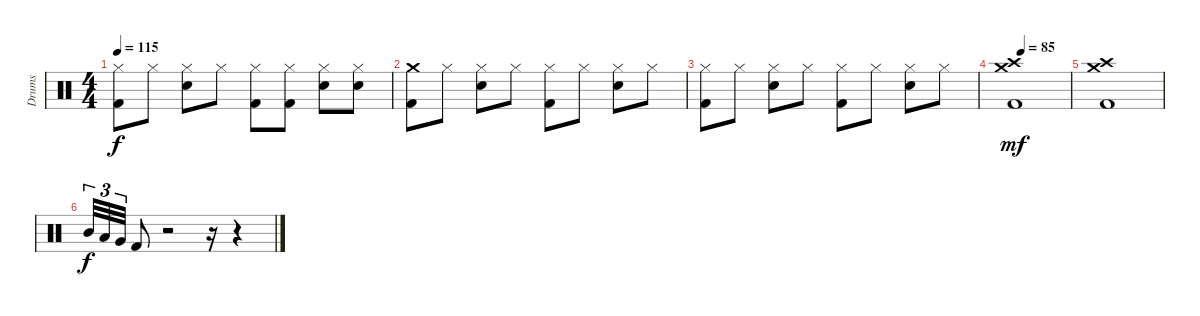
\track ("Drums   " "Drums   ") {instrument percussion}
\staff {score}
\articulation defaults
\ts (4 4)
\tempo 115
\clef neutral
\ks c
("Hi-Hat (closed)" "Kick (hit) 2").8{dy f} "Hi-Hat (closed)".8 ("Hi-Hat (closed)" "Snare (hit) 2").8 "Hi-Hat (closed)".8 ("Hi-Hat (closed)" "Kick (hit) 2").8 ("Hi-Hat (closed)" "Kick (hit) 2").8 ("Hi-Hat (closed)" "Snare (hit) 2").8 ("Hi-Hat (closed)" "Snare (hit) 2").8 |
("Crash medium (hit)" "Kick (hit) 2").8 "Hi-Hat (closed)".8 ("Hi-Hat (closed)" "Snare (hit) 2").8 "Hi-Hat (closed)".8 ("Hi-Hat (closed)" "Kick (hit) 2").8 "Hi-Hat (closed)".8 ("Hi-Hat (closed)" "Snare (hit) 2").8 "Hi-Hat (closed)".8 |
("Hi-Hat (closed)" "Kick (hit) 2").8 "Hi-Hat (closed)".8 ("Hi-Hat (closed)" "Snare (hit) 2").8 "Hi-Hat (closed)".8 ("Hi-Hat (closed)" "Kick (hit) 2").8 "Hi-Hat (closed)".8 ("Hi-Hat (closed)" "Snare (hit) 2").8 "Hi-Hat (closed)".8 |
\tempo (85 0.25)
("Crash medium (hit)" "Crash high (hit)" "Kick (hit) 2").1{dy mf} |
("Crash medium (hit)"{tr (57 64)} "Crash high (hit)"{tr (49 64)} "Kick (hit) 2").1 |
"Mid Tom (hit)".32{tu (3 2) dy f} "Low Tom (hit)".32{tu (3 2)} "Very Low Tom (hit)".32{tu (3 2)} "Kick (hit) 2".8 r.2 r.16 r.4
